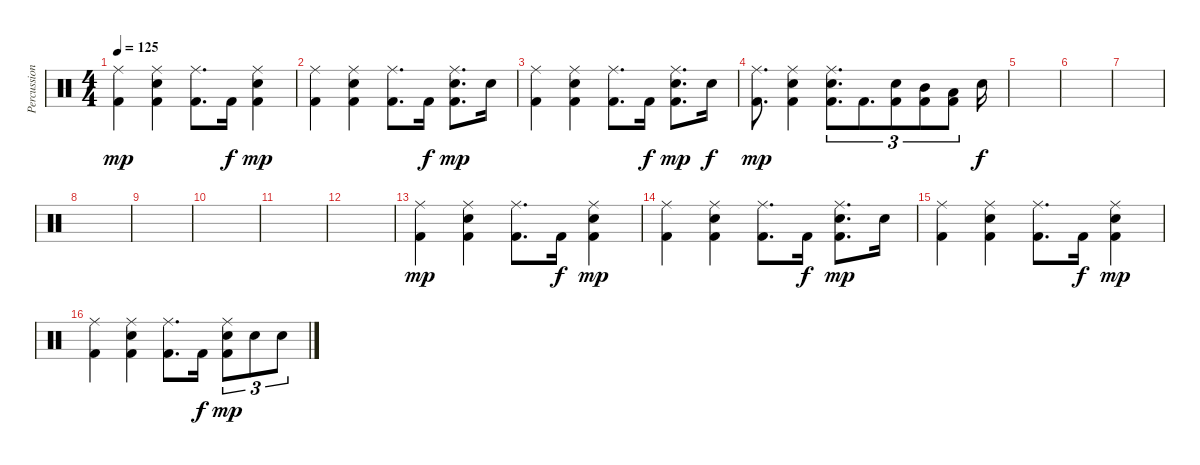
\track ("Percussions" "Percussion") {instrument percussion}
\staff {score}
\articulation defaults
\ts (4 4)
\tempo 125
\clef neutral
\ks c
("Ride (middle)" "Kick (hit) 2").4{dy mp} ("Ride (middle)" "Electric Snare (hit)" "Kick (hit) 2").4 ("Ride (middle)" "Kick (hit) 2").8{d} "Kick (hit) 2".16{dy f} ("Ride (middle)" "Electric Snare (hit)" "Kick (hit) 2").4{dy mp} |
("Ride (middle)" "Kick (hit) 2").4 ("Ride (middle)" "Electric Snare (hit)" "Kick (hit) 2").4 ("Ride (middle)" "Kick (hit) 2").8{d} "Kick (hit) 2".16{dy f} ("Ride (middle)" "Electric Snare (hit)" "Kick (hit) 2").8{d dy mp} "Electric Snare (hit)".16 |
("Ride (middle)" "Kick (hit) 2").4 ("Ride (middle)" "Electric Snare (hit)" "Kick (hit) 2").4 ("Ride (middle)" "Kick (hit) 2").8{d} "Kick (hit) 2".16{dy f} ("Ride (middle)" "Electric Snare (hit)" "Kick (hit) 2").8{d dy mp} "Electric Snare (hit)".16{dy f} |
("Ride (middle)" "Kick (hit) 2").8{d dy mp} ("Ride (middle)" "Electric Snare (hit)" "Kick (hit) 2").4 ("Ride (middle)" "Electric Snare (hit)" "Kick (hit) 2").8{d tu (3 2)} "Kick (hit) 2".8{d tu (3 2)} ("Electric Snare (hit)" "Kick (hit) 2").8{tu (3 2)} ("Mid Tom (hit)" "Kick (hit) 2").8{tu (3 2)} ("Low Tom (hit)" "Kick (hit) 2").8{tu (3 2)} "Electric Snare (hit)".16{dy f} |
|
|
|
|
|
|
|
|
("Ride (middle)" "Kick (hit) 2").4{dy mp} ("Ride (middle)" "Electric Snare (hit)" "Kick (hit) 2").4 ("Ride (middle)" "Kick (hit) 2").8{d} "Kick (hit) 2".16{dy f} ("Ride (middle)" "Electric Snare (hit)" "Kick (hit) 2").4{dy mp} |
("Ride (middle)" "Kick (hit) 2").4 ("Ride (middle)" "Electric Snare (hit)" "Kick (hit) 2").4 ("Ride (middle)" "Kick (hit) 2").8{d} "Kick (hit) 2".16{dy f} ("Ride (middle)" "Electric Snare (hit)" "Kick (hit) 2").8{d dy mp} "Electric Snare (hit)".16 |
("Ride (middle)" "Kick (hit) 2").4 ("Ride (middle)" "Electric Snare (hit)" "Kick (hit) 2").4 ("Ride (middle)" "Kick (hit) 2").8{d} "Kick (hit) 2".16{dy f} ("Ride (middle)" "Electric Snare (hit)" "Kick (hit) 2").4{dy mp} |
("Ride (middle)" "Kick (hit) 2").4 ("Ride (middle)" "Electric Snare (hit)" "Kick (hit) 2").4 ("Ride (middle)" "Kick (hit) 2").8{d} "Kick (hit) 2".16{dy f} ("Ride (middle)" "Electric Snare (hit)" "Kick (hit) 2").8{tu (3 2) dy mp} "Electric Snare (hit)".8{tu (3 2)} "Electric Snare (hit)".8{tu (3 2)}
